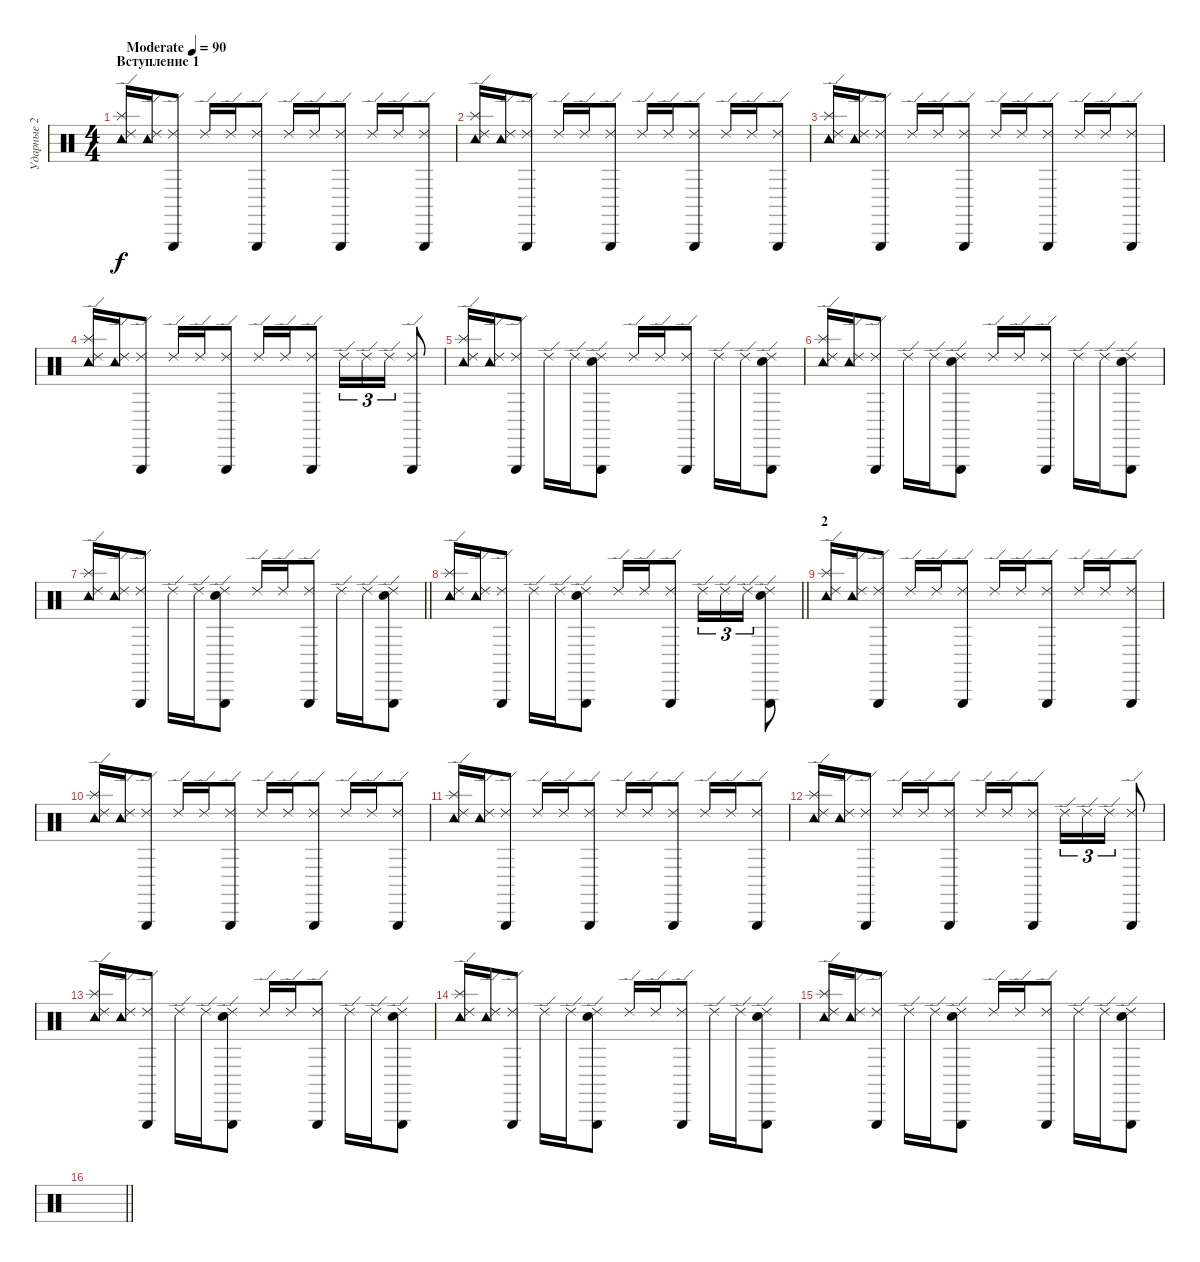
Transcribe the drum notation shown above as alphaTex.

\track ("Ударные 2" "Ударные 2") {instrument percussion}
\staff {score}
\articulation defaults
\ts (4 4)
\section ("" "Вступление 1")
\tempo (90 "Moderate")
\clef neutral
\ks c
("Splash (hit)" "Tambourine (hit)" "Ride (edge) 2").16{dy f volume 8} ("Tambourine (hit)" "Ride (edge) 2").16 ("Triangle (hit)" "Ride (edge) 2").8 "Ride (edge) 2".16 "Ride (edge) 2".16 ("Triangle (hit)" "Ride (edge) 2").8 "Ride (edge) 2".16 "Ride (edge) 2".16 ("Triangle (hit)" "Ride (edge) 2").8 "Ride (edge) 2".16 "Ride (edge) 2".16 ("Triangle (hit)" "Ride (edge) 2").8 |
("Splash (hit)" "Tambourine (hit)" "Ride (edge) 2").16 ("Tambourine (hit)" "Ride (edge) 2").16 ("Triangle (hit)" "Ride (edge) 2").8 "Ride (edge) 2".16 "Ride (edge) 2".16 ("Triangle (hit)" "Ride (edge) 2").8 "Ride (edge) 2".16 "Ride (edge) 2".16 ("Triangle (hit)" "Ride (edge) 2").8 "Ride (edge) 2".16 "Ride (edge) 2".16 ("Triangle (hit)" "Ride (edge) 2").8 |
("Splash (hit)" "Tambourine (hit)" "Ride (edge) 2").16 ("Tambourine (hit)" "Ride (edge) 2").16 ("Triangle (hit)" "Ride (edge) 2").8 "Ride (edge) 2".16 "Ride (edge) 2".16 ("Triangle (hit)" "Ride (edge) 2").8 "Ride (edge) 2".16 "Ride (edge) 2".16 ("Triangle (hit)" "Ride (edge) 2").8 "Ride (edge) 2".16 "Ride (edge) 2".16 ("Triangle (hit)" "Ride (edge) 2").8 |
("Splash (hit)" "Tambourine (hit)" "Ride (edge) 2").16 ("Tambourine (hit)" "Ride (edge) 2").16 ("Triangle (hit)" "Ride (edge) 2").8 "Ride (edge) 2".16 "Ride (edge) 2".16 ("Triangle (hit)" "Ride (edge) 2").8 "Ride (edge) 2".16 "Ride (edge) 2".16 ("Triangle (hit)" "Ride (edge) 2").8 "Ride (edge) 2".16{tu (3 2)} "Ride (edge) 2".16{tu (3 2)} "Ride (edge) 2".16{tu (3 2)} ("Triangle (hit)" "Ride (edge) 2").8 |
("Splash (hit)" "Tambourine (hit)" "Ride (edge) 2").16 ("Tambourine (hit)" "Ride (edge) 2").16 ("Triangle (hit)" "Ride (edge) 2").8 "Ride (edge) 2".16 "Ride (edge) 2".16 ("Triangle (hit)" "Ride (edge) 2" "Hand Clap (hit)").8 "Ride (edge) 2".16 "Ride (edge) 2".16 ("Triangle (hit)" "Ride (edge) 2").8 "Ride (edge) 2".16 "Ride (edge) 2".16 ("Triangle (hit)" "Ride (edge) 2" "Hand Clap (hit)").8 |
("Splash (hit)" "Tambourine (hit)" "Ride (edge) 2").16 ("Tambourine (hit)" "Ride (edge) 2").16 ("Triangle (hit)" "Ride (edge) 2").8 "Ride (edge) 2".16 "Ride (edge) 2".16 ("Triangle (hit)" "Ride (edge) 2" "Hand Clap (hit)").8 "Ride (edge) 2".16 "Ride (edge) 2".16 ("Triangle (hit)" "Ride (edge) 2").8 "Ride (edge) 2".16 "Ride (edge) 2".16 ("Triangle (hit)" "Ride (edge) 2" "Hand Clap (hit)").8 |
\barLineRight lightlight
("Splash (hit)" "Tambourine (hit)" "Ride (edge) 2").16 ("Tambourine (hit)" "Ride (edge) 2").16 ("Triangle (hit)" "Ride (edge) 2").8 "Ride (edge) 2".16 "Ride (edge) 2".16 ("Triangle (hit)" "Ride (edge) 2" "Hand Clap (hit)").8 "Ride (edge) 2".16 "Ride (edge) 2".16 ("Triangle (hit)" "Ride (edge) 2").8 "Ride (edge) 2".16 "Ride (edge) 2".16 ("Triangle (hit)" "Ride (edge) 2" "Hand Clap (hit)").8 |
\barLineRight lightlight
("Splash (hit)" "Tambourine (hit)" "Ride (edge) 2").16 ("Tambourine (hit)" "Ride (edge) 2").16 ("Triangle (hit)" "Ride (edge) 2").8 "Ride (edge) 2".16 "Ride (edge) 2".16 ("Triangle (hit)" "Ride (edge) 2" "Hand Clap (hit)").8 "Ride (edge) 2".16 "Ride (edge) 2".16 ("Triangle (hit)" "Ride (edge) 2").8 "Ride (edge) 2".16{tu (3 2)} "Ride (edge) 2".16{tu (3 2)} "Ride (edge) 2".16{tu (3 2)} ("Triangle (hit)" "Ride (edge) 2" "Hand Clap (hit)").8 |
\section ("" "2")
("Splash (hit)" "Tambourine (hit)" "Ride (edge) 2").16{volume 12} ("Tambourine (hit)" "Ride (edge) 2").16 ("Triangle (hit)" "Ride (edge) 2").8 "Ride (edge) 2".16 "Ride (edge) 2".16 ("Triangle (hit)" "Ride (edge) 2").8 "Ride (edge) 2".16 "Ride (edge) 2".16 ("Triangle (hit)" "Ride (edge) 2").8 "Ride (edge) 2".16 "Ride (edge) 2".16 ("Triangle (hit)" "Ride (edge) 2").8 |
("Splash (hit)" "Tambourine (hit)" "Ride (edge) 2").16 ("Tambourine (hit)" "Ride (edge) 2").16 ("Triangle (hit)" "Ride (edge) 2").8 "Ride (edge) 2".16 "Ride (edge) 2".16 ("Triangle (hit)" "Ride (edge) 2").8 "Ride (edge) 2".16 "Ride (edge) 2".16 ("Triangle (hit)" "Ride (edge) 2").8 "Ride (edge) 2".16 "Ride (edge) 2".16 ("Triangle (hit)" "Ride (edge) 2").8 |
("Splash (hit)" "Tambourine (hit)" "Ride (edge) 2").16 ("Tambourine (hit)" "Ride (edge) 2").16 ("Triangle (hit)" "Ride (edge) 2").8 "Ride (edge) 2".16 "Ride (edge) 2".16 ("Triangle (hit)" "Ride (edge) 2").8 "Ride (edge) 2".16 "Ride (edge) 2".16 ("Triangle (hit)" "Ride (edge) 2").8 "Ride (edge) 2".16 "Ride (edge) 2".16 ("Triangle (hit)" "Ride (edge) 2").8 |
("Splash (hit)" "Tambourine (hit)" "Ride (edge) 2").16 ("Tambourine (hit)" "Ride (edge) 2").16 ("Triangle (hit)" "Ride (edge) 2").8 "Ride (edge) 2".16 "Ride (edge) 2".16 ("Triangle (hit)" "Ride (edge) 2").8 "Ride (edge) 2".16 "Ride (edge) 2".16 ("Triangle (hit)" "Ride (edge) 2").8 "Ride (edge) 2".16{tu (3 2)} "Ride (edge) 2".16{tu (3 2)} "Ride (edge) 2".16{tu (3 2)} ("Triangle (hit)" "Ride (edge) 2").8 |
("Splash (hit)" "Tambourine (hit)" "Ride (edge) 2").16 ("Tambourine (hit)" "Ride (edge) 2").16 ("Triangle (hit)" "Ride (edge) 2").8 "Ride (edge) 2".16 "Ride (edge) 2".16 ("Triangle (hit)" "Ride (edge) 2" "Hand Clap (hit)").8 "Ride (edge) 2".16 "Ride (edge) 2".16 ("Triangle (hit)" "Ride (edge) 2").8 "Ride (edge) 2".16 "Ride (edge) 2".16 ("Triangle (hit)" "Ride (edge) 2" "Hand Clap (hit)").8 |
("Splash (hit)" "Tambourine (hit)" "Ride (edge) 2").16 ("Tambourine (hit)" "Ride (edge) 2").16 ("Triangle (hit)" "Ride (edge) 2").8 "Ride (edge) 2".16 "Ride (edge) 2".16 ("Triangle (hit)" "Ride (edge) 2" "Hand Clap (hit)").8 "Ride (edge) 2".16 "Ride (edge) 2".16 ("Triangle (hit)" "Ride (edge) 2").8 "Ride (edge) 2".16 "Ride (edge) 2".16 ("Triangle (hit)" "Ride (edge) 2" "Hand Clap (hit)").8 |
("Splash (hit)" "Tambourine (hit)" "Ride (edge) 2").16 ("Tambourine (hit)" "Ride (edge) 2").16 ("Triangle (hit)" "Ride (edge) 2").8 "Ride (edge) 2".16 "Ride (edge) 2".16 ("Triangle (hit)" "Ride (edge) 2" "Hand Clap (hit)").8 "Ride (edge) 2".16 "Ride (edge) 2".16 ("Triangle (hit)" "Ride (edge) 2").8 "Ride (edge) 2".16 "Ride (edge) 2".16 ("Triangle (hit)" "Ride (edge) 2" "Hand Clap (hit)").8 |
\barLineRight lightlight
